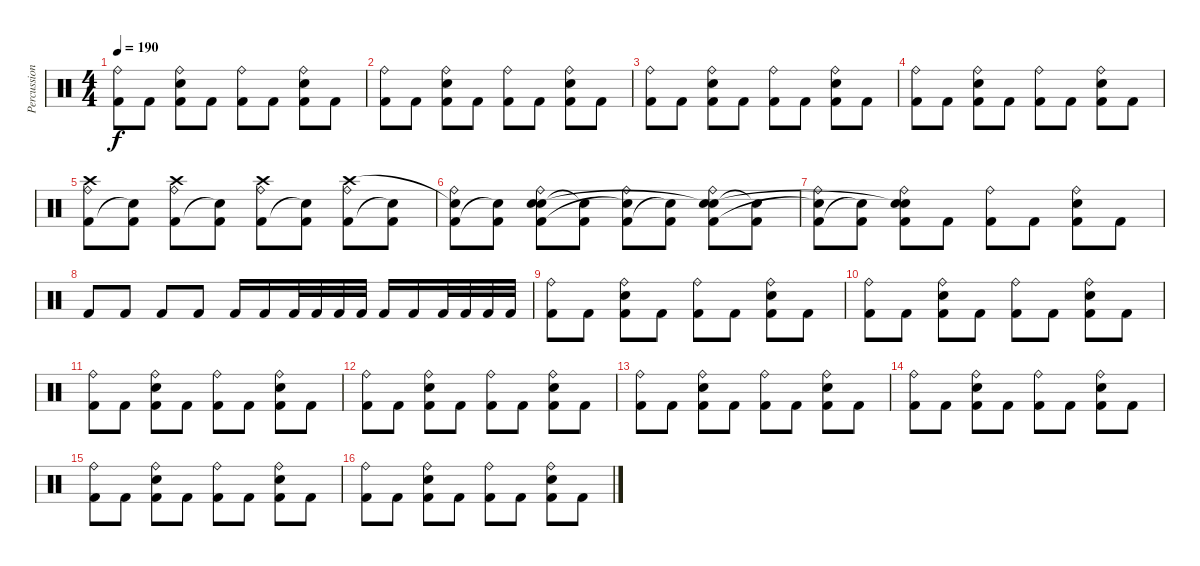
\track ("Percussion" "Percussion") {instrument percussion}
\staff {score}
\articulation defaults
\ts (4 4)
\tempo 190
\clef neutral
\ks c
("Ride (bell)" "Kick (hit) 2").8{dy f} "Kick (hit) 2".8 ("Ride (bell)" "Snare (hit) 2" "Kick (hit) 2").8 "Kick (hit) 2".8 ("Ride (bell)" "Kick (hit) 2").8 "Kick (hit) 2".8 ("Ride (bell)" "Snare (hit) 2" "Kick (hit) 2").8 "Kick (hit) 2".8 |
("Ride (bell)" "Kick (hit) 2").8 "Kick (hit) 2".8 ("Ride (bell)" "Snare (hit) 2" "Kick (hit) 2").8 "Kick (hit) 2".8 ("Ride (bell)" "Kick (hit) 2").8 "Kick (hit) 2".8 ("Ride (bell)" "Snare (hit) 2" "Kick (hit) 2").8 "Kick (hit) 2".8 |
("Ride (bell)" "Kick (hit) 2").8 "Kick (hit) 2".8 ("Ride (bell)" "Snare (hit) 2" "Kick (hit) 2").8 "Kick (hit) 2".8 ("Ride (bell)" "Kick (hit) 2").8 "Kick (hit) 2".8 ("Ride (bell)" "Snare (hit) 2" "Kick (hit) 2").8 "Kick (hit) 2".8 |
("Ride (bell)" "Kick (hit) 2").8 "Kick (hit) 2".8 ("Ride (bell)" "Snare (hit) 2" "Kick (hit) 2").8 "Kick (hit) 2".8 ("Ride (bell)" "Kick (hit) 2").8 "Kick (hit) 2".8 ("Ride (bell)" "Snare (hit) 2" "Kick (hit) 2").8 "Kick (hit) 2".8 |
("Ride (bell)" "Kick (hit) 2" "Crash high (hit)").8 ("Kick (hit) 2" "Snare (hit)"{t}).8 ("Ride (bell)" "Kick (hit) 2" "Crash high (hit)").8 ("Kick (hit) 2" "Snare (hit)"{t}).8 ("Ride (bell)" "Kick (hit) 2" "Crash high (hit)").8 ("Kick (hit) 2" "Snare (hit)"{t}).8 ("Ride (bell)" "Kick (hit) 2" "Crash high (hit)").8 ("Kick (hit) 2" "Snare (hit)"{t}).8 |
("Ride (bell)" "Kick (hit) 2" "Snare (hit)"{t}).8 ("Kick (hit) 2" "Snare (hit)"{t}).8 ("Ride (bell)" "Snare (hit) 2" "Kick (hit) 2" "Snare (hit)").8 ("Kick (hit) 2" "Snare (hit)"{t}).8 ("Ride (bell)" "Kick (hit) 2" "Snare (hit)"{t}).8 ("Kick (hit) 2" "Snare (hit)"{t}).8 ("Ride (bell)" "Snare (hit) 2" "Kick (hit) 2" "Snare (hit)"{t}).8 ("Kick (hit) 2" "Snare (hit)"{t}).8 |
("Ride (bell)" "Kick (hit) 2" "Snare (hit)"{t}).8 ("Kick (hit) 2" "Snare (hit)"{t}).8 ("Ride (bell)" "Snare (hit) 2" "Kick (hit) 2" "Snare (hit)"{t}).8 "Kick (hit) 2".8 ("Ride (bell)" "Kick (hit) 2").8 "Kick (hit) 2".8 ("Ride (bell)" "Snare (hit) 2" "Kick (hit) 2").8 "Kick (hit) 2".8 |
"Kick (hit) 2".8 "Kick (hit) 2".8 "Kick (hit) 2".8 "Kick (hit) 2".8 "Kick (hit) 2".16 "Kick (hit) 2".16 "Kick (hit) 2".32 "Kick (hit) 2".32 "Kick (hit) 2".32 "Kick (hit) 2".32 "Kick (hit) 2".16 "Kick (hit) 2".16 "Kick (hit) 2".32 "Kick (hit) 2".32 "Kick (hit) 2".32 "Kick (hit) 2".32 |
("Ride (bell)" "Kick (hit) 2").8 "Kick (hit) 2".8 ("Ride (bell)" "Snare (hit) 2" "Kick (hit) 2").8 "Kick (hit) 2".8 ("Ride (bell)" "Kick (hit) 2").8 "Kick (hit) 2".8 ("Ride (bell)" "Snare (hit) 2" "Kick (hit) 2").8 "Kick (hit) 2".8 |
("Ride (bell)" "Kick (hit) 2").8 "Kick (hit) 2".8 ("Ride (bell)" "Snare (hit) 2" "Kick (hit) 2").8 "Kick (hit) 2".8 ("Ride (bell)" "Kick (hit) 2").8 "Kick (hit) 2".8 ("Ride (bell)" "Snare (hit) 2" "Kick (hit) 2").8 "Kick (hit) 2".8 |
("Ride (bell)" "Kick (hit) 2").8 "Kick (hit) 2".8 ("Ride (bell)" "Snare (hit) 2" "Kick (hit) 2").8 "Kick (hit) 2".8 ("Ride (bell)" "Kick (hit) 2").8 "Kick (hit) 2".8 ("Ride (bell)" "Snare (hit) 2" "Kick (hit) 2").8 "Kick (hit) 2".8 |
("Ride (bell)" "Kick (hit) 2").8 "Kick (hit) 2".8 ("Ride (bell)" "Snare (hit) 2" "Kick (hit) 2").8 "Kick (hit) 2".8 ("Ride (bell)" "Kick (hit) 2").8 "Kick (hit) 2".8 ("Ride (bell)" "Snare (hit) 2" "Kick (hit) 2").8 "Kick (hit) 2".8 |
("Ride (bell)" "Kick (hit) 2").8 "Kick (hit) 2".8 ("Ride (bell)" "Snare (hit) 2" "Kick (hit) 2").8 "Kick (hit) 2".8 ("Ride (bell)" "Kick (hit) 2").8 "Kick (hit) 2".8 ("Ride (bell)" "Snare (hit) 2" "Kick (hit) 2").8 "Kick (hit) 2".8 |
("Ride (bell)" "Kick (hit) 2").8 "Kick (hit) 2".8 ("Ride (bell)" "Snare (hit) 2" "Kick (hit) 2").8 "Kick (hit) 2".8 ("Ride (bell)" "Kick (hit) 2").8 "Kick (hit) 2".8 ("Ride (bell)" "Snare (hit) 2" "Kick (hit) 2").8 "Kick (hit) 2".8 |
("Ride (bell)" "Kick (hit) 2").8 "Kick (hit) 2".8 ("Ride (bell)" "Snare (hit) 2" "Kick (hit) 2").8 "Kick (hit) 2".8 ("Ride (bell)" "Kick (hit) 2").8 "Kick (hit) 2".8 ("Ride (bell)" "Snare (hit) 2" "Kick (hit) 2").8 "Kick (hit) 2".8 |
("Ride (bell)" "Kick (hit) 2").8 "Kick (hit) 2".8 ("Ride (bell)" "Snare (hit) 2" "Kick (hit) 2").8 "Kick (hit) 2".8 ("Ride (bell)" "Kick (hit) 2").8 "Kick (hit) 2".8 ("Ride (bell)" "Snare (hit) 2" "Kick (hit) 2").8 "Kick (hit) 2".8
